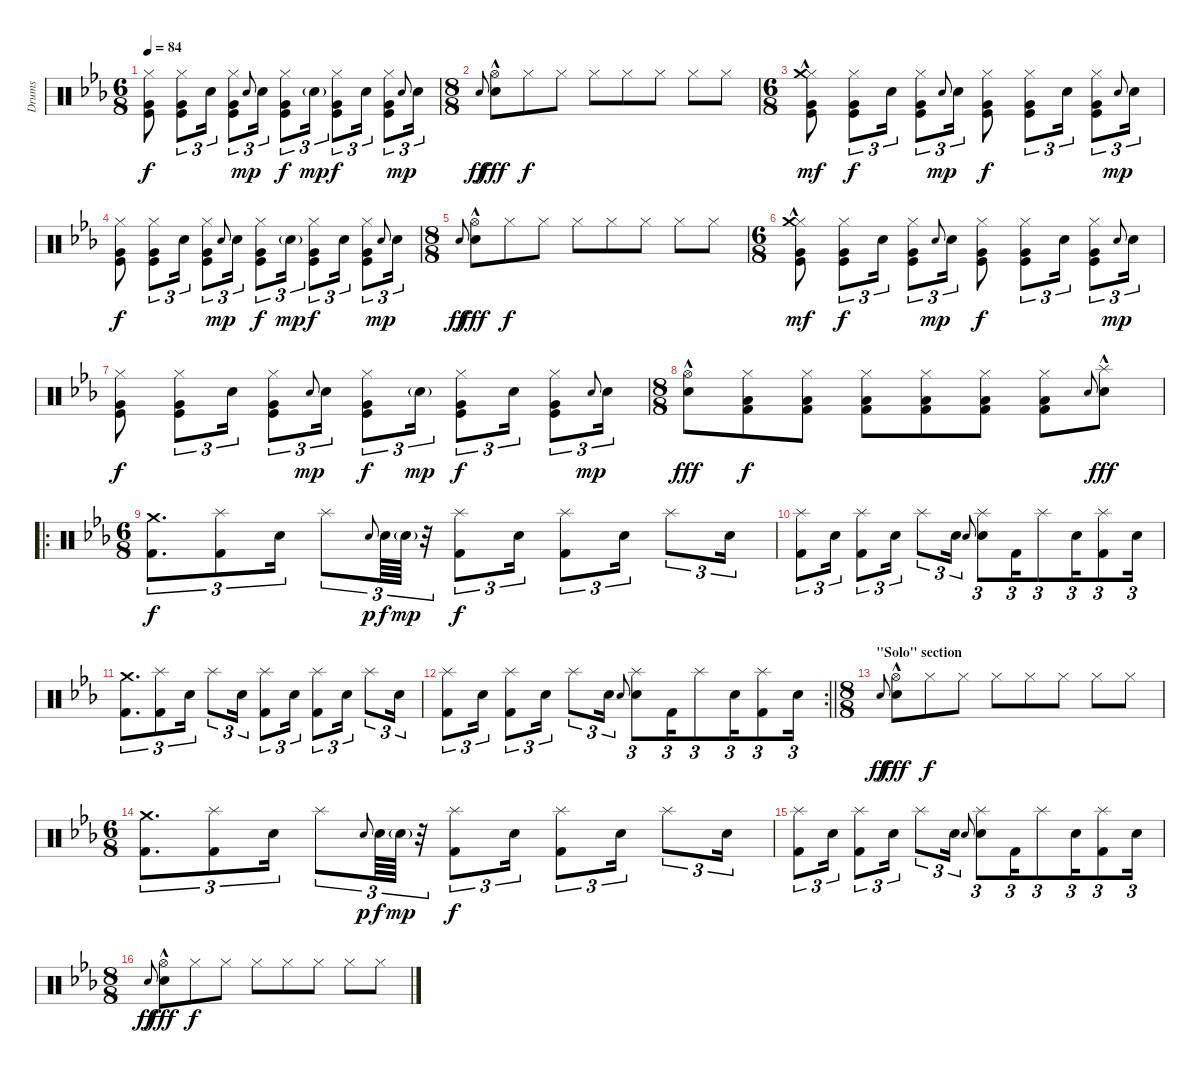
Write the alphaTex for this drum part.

\track ("Drums" "Drums") {instrument percussion}
\staff {score}
\articulation defaults
\ts (6 8)
\tempo 84
\clef neutral
\ks cminor
("Hi-Hat (closed)" "Very Low Tom (hit)" "Kick (hit)").8{dy f} ("Hi-Hat (closed)" "Very Low Tom (hit)" "Kick (hit)").8{tu (3 2)} "Electric Snare (hit)".16{tu (3 2)} ("Hi-Hat (closed)" "Very Low Tom (hit)" "Kick (hit)").8{tu (3 2)} "Electric Snare (hit)".8{gr onbeat dy mp} "Electric Snare (hit)".16{tu (3 2)} ("Hi-Hat (closed)" "Very Low Tom (hit)" "Kick (hit)").8{tu (3 2) dy f} "Electric Snare (hit)"{g}.16{tu (3 2) dy mp} ("Hi-Hat (closed)" "Very Low Tom (hit)" "Kick (hit)").8{tu (3 2) dy f} "Electric Snare (hit)".16{tu (3 2)} ("Hi-Hat (closed)" "Very Low Tom (hit)" "Kick (hit)").8{tu (3 2)} "Electric Snare (hit)".8{gr onbeat dy mp} "Electric Snare (hit)".16{tu (3 2)} |
\ts (8 8)
"Snare (hit) 2".8{gr onbeat dy ff} ("Hi-Hat (open)" "Snare (hit) 2"{hac}).8{dy fff} "Hi-Hat (closed)".8{dy f} "Hi-Hat (closed)".8 "Hi-Hat (closed)".8 "Hi-Hat (closed)".8 "Hi-Hat (closed)".8 "Hi-Hat (closed)".8 "Hi-Hat (closed)".8 |
\ts (6 8)
("Hi-Hat (closed)"{hac} "Crash medium (hit)" "Very Low Tom (hit)" "Kick (hit)").8{dy mf} ("Hi-Hat (closed)" "Very Low Tom (hit)" "Kick (hit)").8{tu (3 2) dy f} "Electric Snare (hit)".16{tu (3 2)} ("Hi-Hat (closed)" "Very Low Tom (hit)" "Kick (hit)").8{tu (3 2)} "Electric Snare (hit)".8{gr onbeat dy mp} "Electric Snare (hit)".16{tu (3 2)} ("Hi-Hat (closed)" "Very Low Tom (hit)" "Kick (hit)").8{dy f} ("Hi-Hat (closed)" "Very Low Tom (hit)" "Kick (hit)").8{tu (3 2)} "Electric Snare (hit)".16{tu (3 2)} ("Hi-Hat (closed)" "Very Low Tom (hit)" "Kick (hit)").8{tu (3 2)} "Electric Snare (hit)".8{gr onbeat dy mp} "Electric Snare (hit)".16{tu (3 2)} |
("Hi-Hat (closed)" "Very Low Tom (hit)" "Kick (hit)").8{dy f} ("Hi-Hat (closed)" "Very Low Tom (hit)" "Kick (hit)").8{tu (3 2)} "Electric Snare (hit)".16{tu (3 2)} ("Hi-Hat (closed)" "Very Low Tom (hit)" "Kick (hit)").8{tu (3 2)} "Electric Snare (hit)".8{gr onbeat dy mp} "Electric Snare (hit)".16{tu (3 2)} ("Hi-Hat (closed)" "Very Low Tom (hit)" "Kick (hit)").8{tu (3 2) dy f} "Electric Snare (hit)"{g}.16{tu (3 2) dy mp} ("Hi-Hat (closed)" "Very Low Tom (hit)" "Kick (hit)").8{tu (3 2) dy f} "Electric Snare (hit)".16{tu (3 2)} ("Hi-Hat (closed)" "Very Low Tom (hit)" "Kick (hit)").8{tu (3 2)} "Electric Snare (hit)".8{gr onbeat dy mp} "Electric Snare (hit)".16{tu (3 2)} |
\ts (8 8)
"Snare (hit) 2".8{gr onbeat dy ff} ("Hi-Hat (open)" "Snare (hit) 2"{hac}).8{dy fff} "Hi-Hat (closed)".8{dy f} "Hi-Hat (closed)".8 "Hi-Hat (closed)".8 "Hi-Hat (closed)".8 "Hi-Hat (closed)".8 "Hi-Hat (closed)".8 "Hi-Hat (closed)".8 |
\ts (6 8)
("Hi-Hat (closed)"{hac} "Crash medium (hit)" "Very Low Tom (hit)" "Kick (hit)").8{dy mf} ("Hi-Hat (closed)" "Very Low Tom (hit)" "Kick (hit)").8{tu (3 2) dy f} "Electric Snare (hit)".16{tu (3 2)} ("Hi-Hat (closed)" "Very Low Tom (hit)" "Kick (hit)").8{tu (3 2)} "Electric Snare (hit)".8{gr onbeat dy mp} "Electric Snare (hit)".16{tu (3 2)} ("Hi-Hat (closed)" "Very Low Tom (hit)" "Kick (hit)").8{dy f} ("Hi-Hat (closed)" "Very Low Tom (hit)" "Kick (hit)").8{tu (3 2)} "Electric Snare (hit)".16{tu (3 2)} ("Hi-Hat (closed)" "Very Low Tom (hit)" "Kick (hit)").8{tu (3 2)} "Electric Snare (hit)".8{gr onbeat dy mp} "Electric Snare (hit)".16{tu (3 2)} |
("Hi-Hat (closed)" "Very Low Tom (hit)" "Kick (hit)").8{dy f} ("Hi-Hat (closed)" "Very Low Tom (hit)" "Kick (hit)").8{tu (3 2)} "Electric Snare (hit)".16{tu (3 2)} ("Hi-Hat (closed)" "Very Low Tom (hit)" "Kick (hit)").8{tu (3 2)} "Electric Snare (hit)".8{gr onbeat dy mp} "Electric Snare (hit)".16{tu (3 2)} ("Hi-Hat (closed)" "Very Low Tom (hit)" "Kick (hit)").8{tu (3 2) dy f} "Electric Snare (hit)"{g}.16{tu (3 2) dy mp} ("Hi-Hat (closed)" "Very Low Tom (hit)" "Kick (hit)").8{tu (3 2) dy f} "Electric Snare (hit)".16{tu (3 2)} ("Hi-Hat (closed)" "Very Low Tom (hit)" "Kick (hit)").8{tu (3 2)} "Electric Snare (hit)".8{gr onbeat dy mp} "Electric Snare (hit)".16{tu (3 2)} |
\ts (8 8)
("Hi-Hat (open)" "Snare (hit) 2"{hac}).8{dy fff} ("Hi-Hat (closed)" "Low Floor Tom (hit)" "Kick (hit) 2").8{dy f} ("Hi-Hat (closed)" "Low Floor Tom (hit)" "Kick (hit) 2").8 ("Hi-Hat (closed)" "Low Floor Tom (hit)" "Kick (hit) 2").8 ("Hi-Hat (closed)" "Low Floor Tom (hit)" "Kick (hit) 2").8 ("Hi-Hat (closed)" "Low Floor Tom (hit)" "Kick (hit) 2").8 ("Hi-Hat (closed)" "Low Floor Tom (hit)" "Kick (hit) 2").8 "Snare (hit) 2".8{gr onbeat} ("Splash (hit)" "Snare (hit) 2"{hac}).8{dy fff} |
\ro
\ts (6 8)
("Crash medium (hit)" "Kick (hit) 2").8{d tu (3 2) dy f} ("Splash (hit)" "Kick (hit) 2").8{tu (3 2)} "Snare (hit) 2".16{tu (3 2)} "Splash (hit)".8{tu (3 2)} "Electric Snare (hit)".8{gr onbeat dy p} "Electric Snare (hit)".64{tu (3 2) dy f} "Electric Snare (hit)"{g}.64{tu (3 2) dy mp} r.32{tu (3 2)} ("Splash (hit)" "Kick (hit) 2").8{tu (3 2) dy f} "Snare (hit) 2".16{tu (3 2)} ("Splash (hit)" "Kick (hit) 2").8{tu (3 2)} "Snare (hit) 2".16{tu (3 2)} "Splash (hit)".8{tu (3 2)} "Snare (hit) 2".16{tu (3 2)} |
("Splash (hit)" "Kick (hit) 2").8{tu (3 2)} "Snare (hit) 2".16{tu (3 2)} ("Splash (hit)" "Kick (hit) 2").8{tu (3 2)} "Snare (hit) 2".16{tu (3 2)} "Splash (hit)".8{tu (3 2)} "Snare (hit) 2".16{tu (3 2)} "Snare (hit) 2"{h}.8{gr onbeat} ("Splash (hit)" "Snare (hit) 2").8{tu (3 2)} "Kick (hit) 2".16{tu (3 2)} "Splash (hit)".8{tu (3 2)} "Snare (hit) 2".16{tu (3 2)} ("Splash (hit)" "Kick (hit) 2").8{tu (3 2)} "Snare (hit) 2".16{tu (3 2)} |
("Crash medium (hit)" "Kick (hit) 2").8{d tu (3 2)} ("Splash (hit)" "Kick (hit) 2").8{tu (3 2)} "Snare (hit) 2".16{tu (3 2)} "Splash (hit)".8{tu (3 2)} "Snare (hit) 2".16{tu (3 2)} ("Splash (hit)" "Kick (hit) 2").8{tu (3 2)} "Snare (hit) 2".16{tu (3 2)} ("Splash (hit)" "Kick (hit) 2").8{tu (3 2)} "Snare (hit) 2".16{tu (3 2)} "Splash (hit)".8{tu (3 2)} "Snare (hit) 2".16{tu (3 2)} |
\rc 2
\barLineRight lightlight
("Splash (hit)" "Kick (hit) 2").8{tu (3 2)} "Snare (hit) 2".16{tu (3 2)} ("Splash (hit)" "Kick (hit) 2").8{tu (3 2)} "Snare (hit) 2".16{tu (3 2)} "Splash (hit)".8{tu (3 2)} "Snare (hit) 2".16{tu (3 2)} "Snare (hit) 2"{h}.8{gr onbeat} ("Splash (hit)" "Snare (hit) 2").8{tu (3 2)} "Kick (hit) 2".16{tu (3 2)} "Splash (hit)".8{tu (3 2)} "Snare (hit) 2".16{tu (3 2)} ("Splash (hit)" "Kick (hit) 2").8{tu (3 2)} "Snare (hit) 2".16{tu (3 2)} |
\ts (8 8)
\section ("" "\"Solo\" section")
"Snare (hit) 2".8{gr onbeat dy ff} ("Hi-Hat (open)" "Snare (hit) 2"{hac}).8{dy fff} "Hi-Hat (closed)".8{dy f} "Hi-Hat (closed)".8 "Hi-Hat (closed)".8 "Hi-Hat (closed)".8 "Hi-Hat (closed)".8 "Hi-Hat (closed)".8 "Hi-Hat (closed)".8 |
\ts (6 8)
("Crash medium (hit)" "Kick (hit) 2").8{d tu (3 2)} ("Splash (hit)" "Kick (hit) 2").8{tu (3 2)} "Snare (hit) 2".16{tu (3 2)} "Splash (hit)".8{tu (3 2)} "Electric Snare (hit)".8{gr onbeat dy p} "Electric Snare (hit)".64{tu (3 2) dy f} "Electric Snare (hit)"{g}.64{tu (3 2) dy mp} r.32{tu (3 2)} ("Splash (hit)" "Kick (hit) 2").8{tu (3 2) dy f} "Snare (hit) 2".16{tu (3 2)} ("Splash (hit)" "Kick (hit) 2").8{tu (3 2)} "Snare (hit) 2".16{tu (3 2)} "Splash (hit)".8{tu (3 2)} "Snare (hit) 2".16{tu (3 2)} |
("Splash (hit)" "Kick (hit) 2").8{tu (3 2)} "Snare (hit) 2".16{tu (3 2)} ("Splash (hit)" "Kick (hit) 2").8{tu (3 2)} "Snare (hit) 2".16{tu (3 2)} "Splash (hit)".8{tu (3 2)} "Snare (hit) 2".16{tu (3 2)} "Snare (hit) 2"{h}.8{gr onbeat} ("Splash (hit)" "Snare (hit) 2").8{tu (3 2)} "Kick (hit) 2".16{tu (3 2)} "Splash (hit)".8{tu (3 2)} "Snare (hit) 2".16{tu (3 2)} ("Splash (hit)" "Kick (hit) 2").8{tu (3 2)} "Snare (hit) 2".16{tu (3 2)} |
\ts (8 8)
"Snare (hit) 2".8{gr onbeat dy ff} ("Hi-Hat (open)" "Snare (hit) 2"{hac}).8{dy fff} "Hi-Hat (closed)".8{dy f} "Hi-Hat (closed)".8 "Hi-Hat (closed)".8 "Hi-Hat (closed)".8 "Hi-Hat (closed)".8 "Hi-Hat (closed)".8 "Hi-Hat (closed)".8
